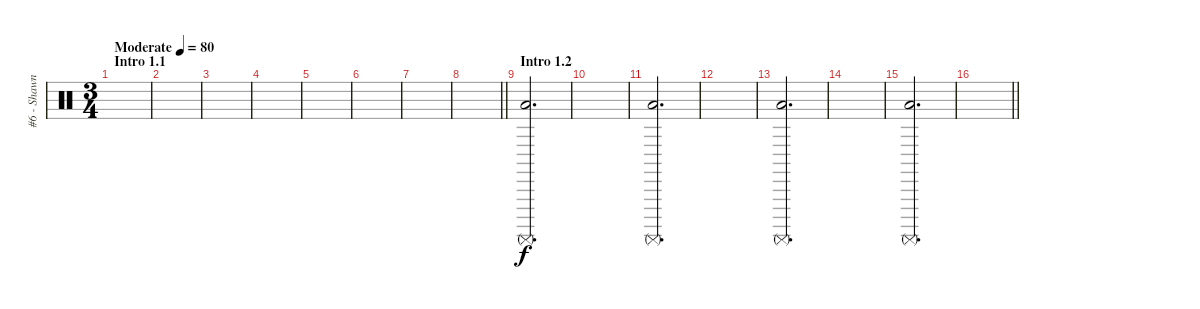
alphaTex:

\track ("#6 - Shawn Crahan" "#6 - Shawn") {instrument percussion}
\staff {score}
\articulation defaults
\ts (3 4)
\section ("" "Intro 1.1")
\tempo (80 "Moderate")
\clef neutral
\ks c
|
|
|
|
|
|
|
\barLineRight lightlight
|
\section ("" "Intro 1.2")
("Low Floor Tom (hit)" "Surdo (mute)").2{d volume 16} |
|
("Low Floor Tom (hit)" "Surdo (mute)").2{d} |
|
("Low Floor Tom (hit)" "Surdo (mute)").2{d} |
|
("Low Floor Tom (hit)" "Surdo (mute)").2{d} |
\barLineRight lightlight
